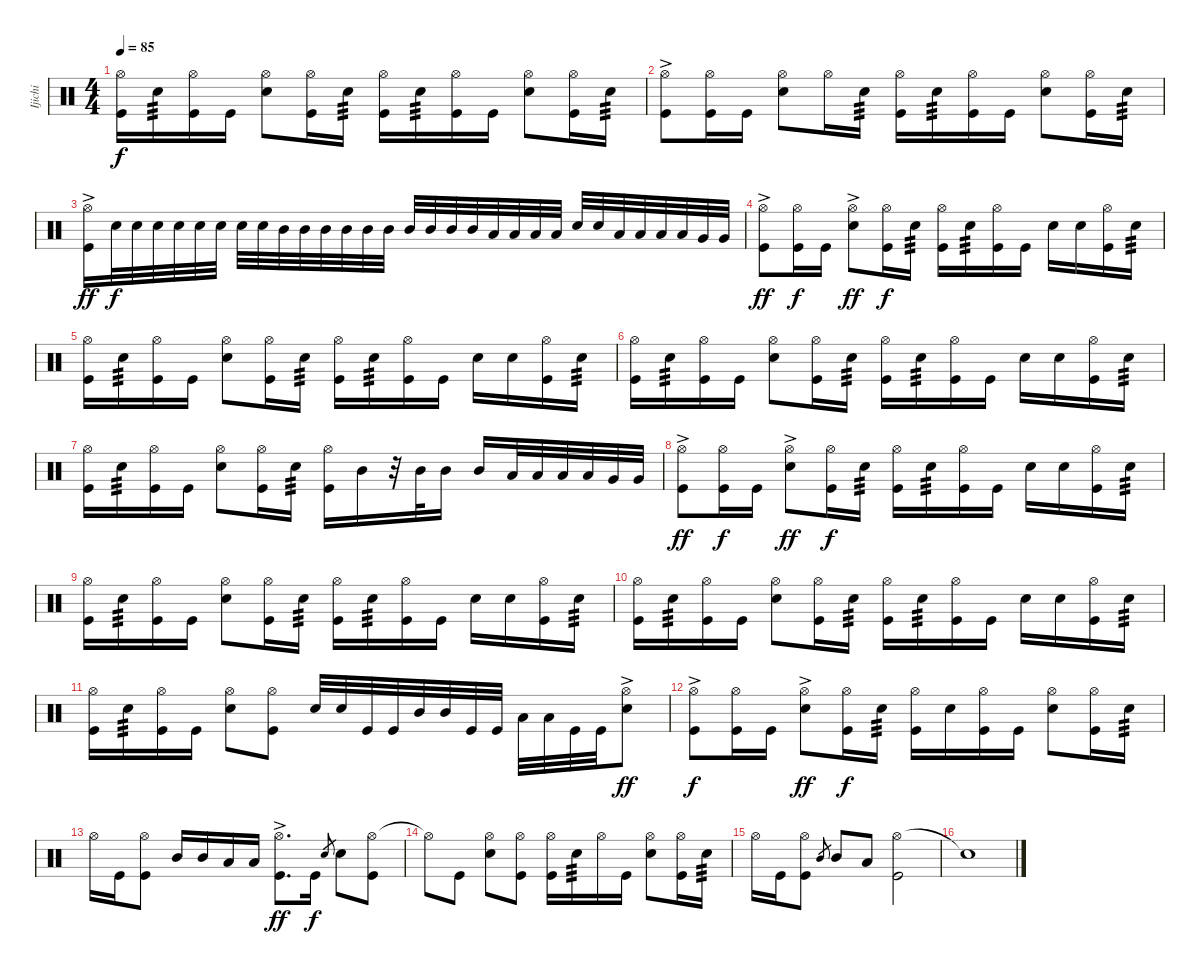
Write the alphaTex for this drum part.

\track ("Ijichi" "Ijichi") {instrument percussion}
\staff {score}
\articulation defaults
\ts (4 4)
\tempo 85
\clef neutral
\ks c
("Hi-Hat (open)" "Kick (hit)").16{dy f} "Snare (hit) 2".16{tp 3} ("Hi-Hat (open)" "Kick (hit)").16 "Kick (hit)".16 ("Hi-Hat (open)" "Snare (hit) 2").8 ("Hi-Hat (open)" "Kick (hit)").16 "Snare (hit) 2".16{tp 3} ("Hi-Hat (open)" "Kick (hit)").16 "Snare (hit) 2".16{tp 3} ("Hi-Hat (open)" "Kick (hit)").16 "Kick (hit)".16 ("Hi-Hat (open)" "Snare (hit) 2").8 ("Hi-Hat (open)" "Kick (hit)").16 "Snare (hit) 2".16{tp 3} |
("Hi-Hat (open)"{ac} "Kick (hit)").8 ("Hi-Hat (open)" "Kick (hit)").16 "Kick (hit)".16 ("Hi-Hat (open)" "Snare (hit) 2").8 "Hi-Hat (open)".16 "Snare (hit) 2".16{tp 3} ("Hi-Hat (open)" "Kick (hit)").16 "Snare (hit) 2".16{tp 3} ("Hi-Hat (open)" "Kick (hit)").16 "Kick (hit)".16 ("Hi-Hat (open)" "Snare (hit) 2").8 ("Hi-Hat (open)" "Kick (hit)").16 "Snare (hit) 2".16{tp 3} |
("Hi-Hat (open)"{ac} "Kick (hit)").16{dy ff} "Snare (hit) 2".32{dy f} "Snare (hit) 2".32 "Snare (hit) 2".32 "Snare (hit) 2".32 "Snare (hit) 2".32 "Snare (hit) 2".32 "Snare (hit) 2".32 "Snare (hit) 2".32 "Mid Tom (hit)".32 "Mid Tom (hit)".32 "Mid Tom (hit)".32 "Mid Tom (hit)".32 "Mid Tom (hit)".32 "Mid Tom (hit)".32 "Mid Tom (hit)".32 "Mid Tom (hit)".32 "Mid Tom (hit)".32 "Mid Tom (hit)".32 "Low Tom (hit)".32 "Low Tom (hit)".32 "Low Tom (hit)".32 "Low Tom (hit)".32 "Snare (hit) 2".32 "Snare (hit) 2".32 "Low Tom (hit)".32 "Low Tom (hit)".32 "Low Tom (hit)".32 "Low Tom (hit)".32 "Very Low Tom (hit)".32 "Very Low Tom (hit)".32 |
("Hi-Hat (open)"{ac} "Kick (hit)").8{dy ff} ("Hi-Hat (open)" "Kick (hit)").16{dy f} "Kick (hit)".16 ("Hi-Hat (open)"{ac} "Snare (hit) 2").8{dy ff} ("Hi-Hat (open)" "Kick (hit)").16{dy f} "Snare (hit) 2".16{tp 3} ("Hi-Hat (open)" "Kick (hit)").16 "Snare (hit) 2".16{tp 3} ("Hi-Hat (open)" "Kick (hit)").16 "Kick (hit)".16 "Snare (hit) 2".16 "Snare (hit) 2".16 ("Hi-Hat (open)" "Kick (hit)").16 "Snare (hit) 2".16{tp 3} |
("Hi-Hat (open)" "Kick (hit)").16 "Snare (hit) 2".16{tp 3} ("Hi-Hat (open)" "Kick (hit)").16 "Kick (hit)".16 ("Hi-Hat (open)" "Snare (hit) 2").8 ("Hi-Hat (open)" "Kick (hit)").16 "Snare (hit) 2".16{tp 3} ("Hi-Hat (open)" "Kick (hit)").16 "Snare (hit) 2".16{tp 3} ("Hi-Hat (open)" "Kick (hit)").16 "Kick (hit)".16 "Snare (hit) 2".16 "Snare (hit) 2".16 ("Hi-Hat (open)" "Kick (hit)").16 "Snare (hit) 2".16{tp 3} |
("Hi-Hat (open)" "Kick (hit)").16 "Snare (hit) 2".16{tp 3} ("Hi-Hat (open)" "Kick (hit)").16 "Kick (hit)".16 ("Hi-Hat (open)" "Snare (hit) 2").8 ("Hi-Hat (open)" "Kick (hit)").16 "Snare (hit) 2".16{tp 3} ("Hi-Hat (open)" "Kick (hit)").16 "Snare (hit) 2".16{tp 3} ("Hi-Hat (open)" "Kick (hit)").16 "Kick (hit)".16 "Snare (hit) 2".16 "Snare (hit) 2".16 ("Hi-Hat (open)" "Kick (hit)").16 "Snare (hit) 2".16{tp 3} |
("Hi-Hat (open)" "Kick (hit)").16 "Snare (hit) 2".16{tp 3} ("Hi-Hat (open)" "Kick (hit)").16 "Kick (hit)".16 ("Hi-Hat (open)" "Snare (hit) 2").8 ("Hi-Hat (open)" "Kick (hit)").16 "Snare (hit) 2".16{tp 3} ("Hi-Hat (open)" "Kick (hit)").16 "Mid Tom (hit)".16 r.32 "Mid Tom (hit)".32 "Mid Tom (hit)".16 "Mid Tom (hit)".16 "Low Tom (hit)".32 "Low Tom (hit)".32 "Low Tom (hit)".32 "Low Tom (hit)".32 "Very Low Tom (hit)".32 "Very Low Tom (hit)".32 |
("Hi-Hat (open)"{ac} "Kick (hit)").8{dy ff} ("Hi-Hat (open)" "Kick (hit)").16{dy f} "Kick (hit)".16 ("Hi-Hat (open)"{ac} "Snare (hit) 2").8{dy ff} ("Hi-Hat (open)" "Kick (hit)").16{dy f} "Snare (hit) 2".16{tp 3} ("Hi-Hat (open)" "Kick (hit)").16 "Snare (hit) 2".16{tp 3} ("Hi-Hat (open)" "Kick (hit)").16 "Kick (hit)".16 "Snare (hit) 2".16 "Snare (hit) 2".16 ("Hi-Hat (open)" "Kick (hit)").16 "Snare (hit) 2".16{tp 3} |
("Hi-Hat (open)" "Kick (hit)").16 "Snare (hit) 2".16{tp 3} ("Hi-Hat (open)" "Kick (hit)").16 "Kick (hit)".16 ("Hi-Hat (open)" "Snare (hit) 2").8 ("Hi-Hat (open)" "Kick (hit)").16 "Snare (hit) 2".16{tp 3} ("Hi-Hat (open)" "Kick (hit)").16 "Snare (hit) 2".16{tp 3} ("Hi-Hat (open)" "Kick (hit)").16 "Kick (hit)".16 "Snare (hit) 2".16 "Snare (hit) 2".16 ("Hi-Hat (open)" "Kick (hit)").16 "Snare (hit) 2".16{tp 3} |
("Hi-Hat (open)" "Kick (hit)").16 "Snare (hit) 2".16{tp 3} ("Hi-Hat (open)" "Kick (hit)").16 "Kick (hit)".16 ("Hi-Hat (open)" "Snare (hit) 2").8 ("Hi-Hat (open)" "Kick (hit)").16 "Snare (hit) 2".16{tp 3} ("Hi-Hat (open)" "Kick (hit)").16 "Snare (hit) 2".16{tp 3} ("Hi-Hat (open)" "Kick (hit)").16 "Kick (hit)".16 "Snare (hit) 2".16 "Snare (hit) 2".16 ("Hi-Hat (open)" "Kick (hit)").16 "Snare (hit) 2".16{tp 3} |
("Hi-Hat (open)" "Kick (hit)").16 "Snare (hit) 2".16{tp 3} ("Hi-Hat (open)" "Kick (hit)").16 "Kick (hit)".16 ("Hi-Hat (open)" "Snare (hit) 2").8 ("Hi-Hat (open)" "Kick (hit)").8 "Snare (hit) 2".32 "Snare (hit) 2".32 "Kick (hit)".32 "Kick (hit)".32 "Mid Tom (hit)".32 "Mid Tom (hit)".32 "Kick (hit)".32 "Kick (hit)".32 "Low Tom (hit)".32 "Low Tom (hit)".32 "Kick (hit)".32 "Kick (hit)".32 ("Hi-Hat (open)"{ac} "Snare (hit) 2").8{dy ff} |
("Hi-Hat (open)"{ac} "Kick (hit)").8{dy f} ("Hi-Hat (open)" "Kick (hit)").16 "Kick (hit)".16 ("Hi-Hat (open)"{ac} "Snare (hit) 2").8{dy ff} ("Hi-Hat (open)" "Kick (hit)").16{dy f} "Snare (hit) 2".16{tp 3} ("Hi-Hat (open)" "Kick (hit)").16 "Snare (hit) 2".16 ("Hi-Hat (open)" "Kick (hit)").16 "Kick (hit)".16 ("Hi-Hat (open)" "Snare (hit) 2").8 ("Hi-Hat (open)" "Kick (hit)").16 "Snare (hit) 2".16{tp 3} |
"Hi-Hat (open)".16 "Kick (hit)".16 ("Hi-Hat (open)" "Kick (hit)").8 "Mid Tom (hit)".16 "Mid Tom (hit)".16 "Low Tom (hit)".16 "Low Tom (hit)".16 ("Hi-Hat (open)"{ac} "Kick (hit)").8{d dy ff} "Kick (hit)".16{dy f} "Snare (hit) 2".8{gr} "Snare (hit) 2".8 ("Hi-Hat (open)" "Kick (hit)").8 |
"Hi-Hat (open)"{t}.8 "Kick (hit)".8 ("Hi-Hat (open)" "Snare (hit) 2").8 ("Hi-Hat (open)" "Kick (hit)").8 ("Hi-Hat (open)" "Kick (hit)").16 "Snare (hit) 2".16{tp 3} "Hi-Hat (open)".16 "Kick (hit)".16 ("Hi-Hat (open)" "Snare (hit) 2").8 ("Hi-Hat (open)" "Kick (hit)").16 "Snare (hit) 2".16{tp 3} |
"Hi-Hat (open)".16 "Kick (hit)".16 ("Hi-Hat (open)" "Kick (hit)").8 "Mid Tom (hit)".8{gr} "Mid Tom (hit)".8 "Low Tom (hit)".8 ("Hi-Hat (open)" "Kick (hit)").2 |
"Snare (hit)"{t}.1
